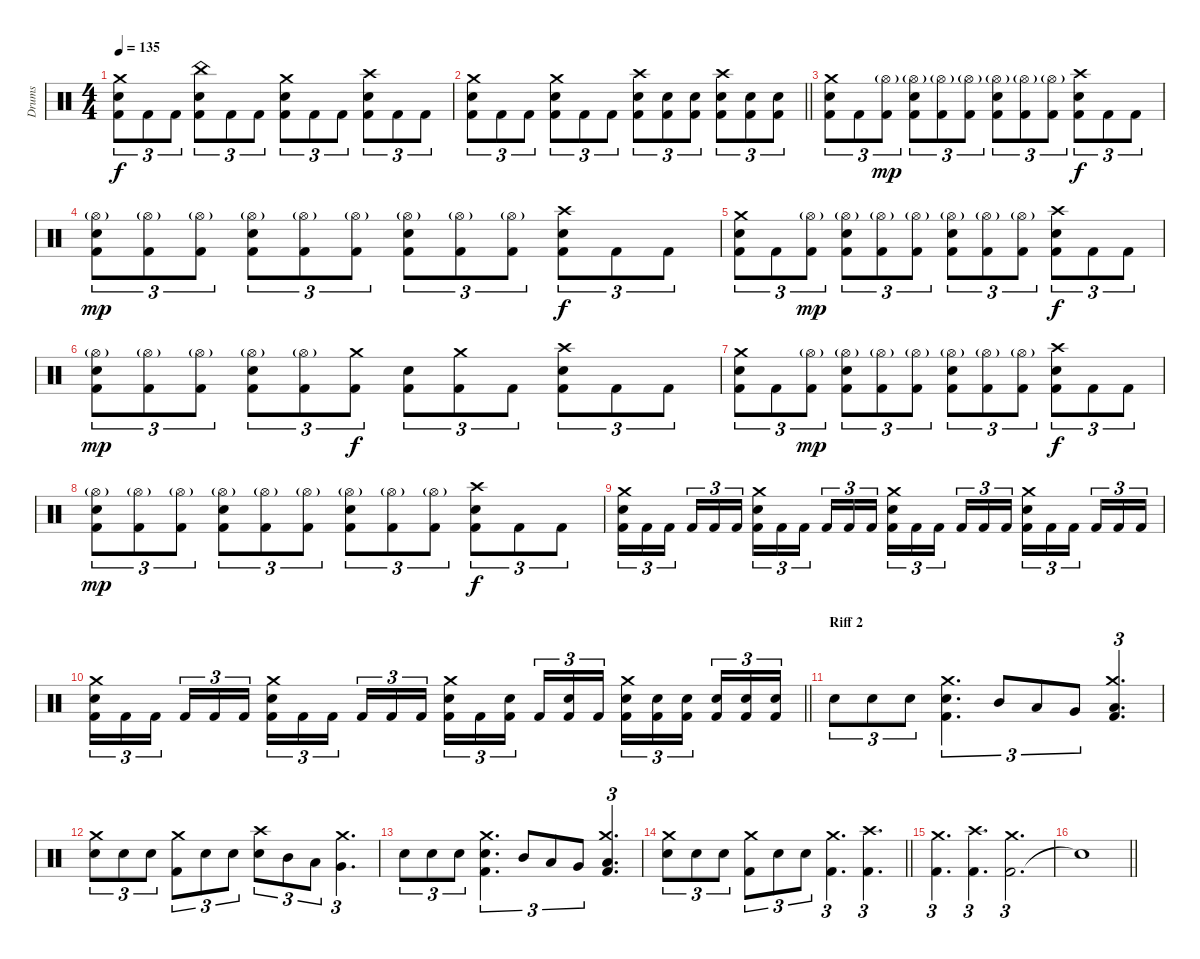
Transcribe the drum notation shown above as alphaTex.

\track ("Drums" "Drums") {instrument percussion}
\staff {score}
\articulation defaults
\ts (4 4)
\tempo 135
\clef neutral
\ks c
("Kick (hit) 2" "Snare (hit) 2" "Crash medium (hit)").8{tu (3 2) dy f} "Kick (hit) 2".8{tu (3 2)} "Kick (hit) 2".8{tu (3 2)} ("Kick (hit) 2" "Snare (hit) 2" "China (hit)").8{tu (3 2)} "Kick (hit) 2".8{tu (3 2)} "Kick (hit) 2".8{tu (3 2)} ("Kick (hit) 2" "Snare (hit) 2" "Crash medium (hit)").8{tu (3 2)} "Kick (hit) 2".8{tu (3 2)} "Kick (hit) 2".8{tu (3 2)} ("Kick (hit) 2" "Snare (hit) 2" "Crash high (hit)").8{tu (3 2)} "Kick (hit) 2".8{tu (3 2)} "Kick (hit) 2".8{tu (3 2)} |
\barLineRight lightlight
("Kick (hit) 2" "Snare (hit) 2" "Crash medium (hit)").8{tu (3 2)} "Kick (hit) 2".8{tu (3 2)} "Kick (hit) 2".8{tu (3 2)} ("Kick (hit) 2" "Snare (hit) 2" "Crash medium (hit)").8{tu (3 2)} "Kick (hit) 2".8{tu (3 2)} "Kick (hit) 2".8{tu (3 2)} ("Kick (hit) 2" "Snare (hit) 2" "Crash high (hit)").8{tu (3 2)} ("Kick (hit) 2" "Snare (hit) 2").8{tu (3 2)} ("Kick (hit) 2" "Snare (hit) 2").8{tu (3 2)} ("Kick (hit) 2" "Snare (hit) 2" "Crash high (hit)").8{tu (3 2)} ("Kick (hit) 2" "Snare (hit) 2").8{tu (3 2)} ("Kick (hit) 2" "Snare (hit) 2").8{tu (3 2)} |
\section ("" "")
("Kick (hit) 2" "Snare (hit) 2" "Crash medium (hit)").8{tu (3 2)} "Kick (hit) 2".8{tu (3 2)} ("Kick (hit) 2" "Hi-Hat (open)"{g}).8{tu (3 2) dy mp} ("Kick (hit) 2" "Snare (hit) 2" "Hi-Hat (open)"{g}).8{tu (3 2)} ("Kick (hit) 2" "Hi-Hat (open)"{g}).8{tu (3 2)} ("Kick (hit) 2" "Hi-Hat (open)"{g}).8{tu (3 2)} ("Kick (hit) 2" "Snare (hit) 2" "Hi-Hat (open)"{g}).8{tu (3 2)} ("Kick (hit) 2" "Hi-Hat (open)"{g}).8{tu (3 2)} ("Kick (hit) 2" "Hi-Hat (open)"{g}).8{tu (3 2)} ("Kick (hit) 2" "Snare (hit) 2" "Crash high (hit)").8{tu (3 2) dy f} "Kick (hit) 2".8{tu (3 2)} "Kick (hit) 2".8{tu (3 2)} |
("Kick (hit) 2" "Snare (hit) 2" "Hi-Hat (open)"{g}).8{tu (3 2) dy mp} ("Kick (hit) 2" "Hi-Hat (open)"{g}).8{tu (3 2)} ("Kick (hit) 2" "Hi-Hat (open)"{g}).8{tu (3 2)} ("Kick (hit) 2" "Snare (hit) 2" "Hi-Hat (open)"{g}).8{tu (3 2)} ("Kick (hit) 2" "Hi-Hat (open)"{g}).8{tu (3 2)} ("Kick (hit) 2" "Hi-Hat (open)"{g}).8{tu (3 2)} ("Kick (hit) 2" "Snare (hit) 2" "Hi-Hat (open)"{g}).8{tu (3 2)} ("Kick (hit) 2" "Hi-Hat (open)"{g}).8{tu (3 2)} ("Kick (hit) 2" "Hi-Hat (open)"{g}).8{tu (3 2)} ("Kick (hit) 2" "Snare (hit) 2" "Crash high (hit)").8{tu (3 2) dy f} "Kick (hit) 2".8{tu (3 2)} "Kick (hit) 2".8{tu (3 2)} |
("Kick (hit) 2" "Snare (hit) 2" "Crash medium (hit)").8{tu (3 2)} "Kick (hit) 2".8{tu (3 2)} ("Kick (hit) 2" "Hi-Hat (open)"{g}).8{tu (3 2) dy mp} ("Kick (hit) 2" "Snare (hit) 2" "Hi-Hat (open)"{g}).8{tu (3 2)} ("Kick (hit) 2" "Hi-Hat (open)"{g}).8{tu (3 2)} ("Kick (hit) 2" "Hi-Hat (open)"{g}).8{tu (3 2)} ("Kick (hit) 2" "Snare (hit) 2" "Hi-Hat (open)"{g}).8{tu (3 2)} ("Kick (hit) 2" "Hi-Hat (open)"{g}).8{tu (3 2)} ("Kick (hit) 2" "Hi-Hat (open)"{g}).8{tu (3 2)} ("Kick (hit) 2" "Snare (hit) 2" "Crash high (hit)").8{tu (3 2) dy f} "Kick (hit) 2".8{tu (3 2)} "Kick (hit) 2".8{tu (3 2)} |
("Kick (hit) 2" "Snare (hit) 2" "Hi-Hat (open)"{g}).8{tu (3 2) dy mp} ("Kick (hit) 2" "Hi-Hat (open)"{g}).8{tu (3 2)} ("Kick (hit) 2" "Hi-Hat (open)"{g}).8{tu (3 2)} ("Kick (hit) 2" "Snare (hit) 2" "Hi-Hat (open)"{g}).8{tu (3 2)} ("Kick (hit) 2" "Hi-Hat (open)"{g}).8{tu (3 2)} ("Kick (hit) 2" "Crash medium (hit)").8{tu (3 2) dy f} ("Kick (hit) 2" "Snare (hit) 2").8{tu (3 2)} ("Kick (hit) 2" "Crash medium (hit)").8{tu (3 2)} "Kick (hit) 2".8{tu (3 2)} ("Kick (hit) 2" "Snare (hit) 2" "Crash high (hit)").8{tu (3 2)} "Kick (hit) 2".8{tu (3 2)} "Kick (hit) 2".8{tu (3 2)} |
("Kick (hit) 2" "Snare (hit) 2" "Crash medium (hit)").8{tu (3 2)} "Kick (hit) 2".8{tu (3 2)} ("Kick (hit) 2" "Hi-Hat (open)"{g}).8{tu (3 2) dy mp} ("Kick (hit) 2" "Snare (hit) 2" "Hi-Hat (open)"{g}).8{tu (3 2)} ("Kick (hit) 2" "Hi-Hat (open)"{g}).8{tu (3 2)} ("Kick (hit) 2" "Hi-Hat (open)"{g}).8{tu (3 2)} ("Kick (hit) 2" "Snare (hit) 2" "Hi-Hat (open)"{g}).8{tu (3 2)} ("Kick (hit) 2" "Hi-Hat (open)"{g}).8{tu (3 2)} ("Kick (hit) 2" "Hi-Hat (open)"{g}).8{tu (3 2)} ("Kick (hit) 2" "Snare (hit) 2" "Crash high (hit)").8{tu (3 2) dy f} "Kick (hit) 2".8{tu (3 2)} "Kick (hit) 2".8{tu (3 2)} |
("Kick (hit) 2" "Snare (hit) 2" "Hi-Hat (open)"{g}).8{tu (3 2) dy mp} ("Kick (hit) 2" "Hi-Hat (open)"{g}).8{tu (3 2)} ("Kick (hit) 2" "Hi-Hat (open)"{g}).8{tu (3 2)} ("Kick (hit) 2" "Snare (hit) 2" "Hi-Hat (open)"{g}).8{tu (3 2)} ("Kick (hit) 2" "Hi-Hat (open)"{g}).8{tu (3 2)} ("Kick (hit) 2" "Hi-Hat (open)"{g}).8{tu (3 2)} ("Kick (hit) 2" "Snare (hit) 2" "Hi-Hat (open)"{g}).8{tu (3 2)} ("Kick (hit) 2" "Hi-Hat (open)"{g}).8{tu (3 2)} ("Kick (hit) 2" "Hi-Hat (open)"{g}).8{tu (3 2)} ("Kick (hit) 2" "Snare (hit) 2" "Crash high (hit)").8{tu (3 2) dy f} "Kick (hit) 2".8{tu (3 2)} "Kick (hit) 2".8{tu (3 2)} |
("Kick (hit) 2" "Snare (hit) 2" "Crash medium (hit)").16{tu (3 2)} "Kick (hit) 2".16{tu (3 2)} "Kick (hit) 2".16{tu (3 2) beam splitsecondary} "Kick (hit) 2".16{tu (3 2)} "Kick (hit) 2".16{tu (3 2)} "Kick (hit) 2".16{tu (3 2)} ("Kick (hit) 2" "Snare (hit) 2" "Crash medium (hit)").16{tu (3 2)} "Kick (hit) 2".16{tu (3 2)} "Kick (hit) 2".16{tu (3 2) beam splitsecondary} "Kick (hit) 2".16{tu (3 2)} "Kick (hit) 2".16{tu (3 2)} "Kick (hit) 2".16{tu (3 2)} ("Kick (hit) 2" "Snare (hit) 2" "Crash medium (hit)").16{tu (3 2)} "Kick (hit) 2".16{tu (3 2)} "Kick (hit) 2".16{tu (3 2) beam splitsecondary} "Kick (hit) 2".16{tu (3 2)} "Kick (hit) 2".16{tu (3 2)} "Kick (hit) 2".16{tu (3 2)} ("Kick (hit) 2" "Snare (hit) 2" "Crash medium (hit)").16{tu (3 2)} "Kick (hit) 2".16{tu (3 2)} "Kick (hit) 2".16{tu (3 2) beam splitsecondary} "Kick (hit) 2".16{tu (3 2)} "Kick (hit) 2".16{tu (3 2)} "Kick (hit) 2".16{tu (3 2)} |
\barLineRight lightlight
("Kick (hit) 2" "Snare (hit) 2" "Crash medium (hit)").16{tu (3 2)} "Kick (hit) 2".16{tu (3 2)} "Kick (hit) 2".16{tu (3 2) beam splitsecondary} "Kick (hit) 2".16{tu (3 2)} "Kick (hit) 2".16{tu (3 2)} "Kick (hit) 2".16{tu (3 2)} ("Kick (hit) 2" "Snare (hit) 2" "Crash medium (hit)").16{tu (3 2)} "Kick (hit) 2".16{tu (3 2)} "Kick (hit) 2".16{tu (3 2) beam splitsecondary} "Kick (hit) 2".16{tu (3 2)} "Kick (hit) 2".16{tu (3 2)} "Kick (hit) 2".16{tu (3 2)} ("Kick (hit) 2" "Snare (hit) 2" "Crash medium (hit)").16{tu (3 2)} "Kick (hit) 2".16{tu (3 2)} ("Kick (hit) 2" "Snare (hit) 2").16{tu (3 2) beam splitsecondary} "Kick (hit) 2".16{tu (3 2)} ("Kick (hit) 2" "Snare (hit) 2").16{tu (3 2)} "Kick (hit) 2".16{tu (3 2)} ("Kick (hit) 2" "Snare (hit) 2" "Crash medium (hit)").16{tu (3 2)} ("Kick (hit) 2" "Snare (hit) 2").16{tu (3 2)} ("Kick (hit) 2" "Snare (hit) 2").16{tu (3 2) beam splitsecondary} ("Kick (hit) 2" "Snare (hit) 2").16{tu (3 2)} ("Kick (hit) 2" "Snare (hit) 2").16{tu (3 2)} ("Kick (hit) 2" "Snare (hit) 2").16{tu (3 2)} |
\section ("" "Riff 2")
"Snare (hit) 2".8{tu (3 2)} "Snare (hit) 2".8{tu (3 2)} "Snare (hit) 2".8{tu (3 2)} ("Kick (hit) 2" "Snare (hit) 2" "Crash medium (hit)").4{d tu (3 2)} "Mid Tom (hit)".8{tu (3 2)} "Low Tom (hit)".8{tu (3 2)} "Very Low Tom (hit)".8{tu (3 2)} ("Kick (hit) 2" "Low Floor Tom (hit)" "Crash medium (hit)").4{d tu (3 2)} |
("Snare (hit) 2" "Crash medium (hit)").8{tu (3 2)} "Snare (hit) 2".8{tu (3 2)} "Snare (hit) 2".8{tu (3 2)} ("Kick (hit) 2" "Crash medium (hit)").8{tu (3 2)} "Snare (hit) 2".8{tu (3 2)} "Snare (hit) 2".8{tu (3 2)} ("Snare (hit) 2" "Crash high (hit)").8{tu (3 2)} "Mid Tom (hit)".8{tu (3 2)} "Low Tom (hit)".8{tu (3 2)} ("Very Low Tom (hit)" "Crash medium (hit)").4{d tu (3 2)} |
"Snare (hit) 2".8{tu (3 2)} "Snare (hit) 2".8{tu (3 2)} "Snare (hit) 2".8{tu (3 2)} ("Kick (hit) 2" "Snare (hit) 2" "Crash medium (hit)").4{d tu (3 2)} "Mid Tom (hit)".8{tu (3 2)} "Low Tom (hit)".8{tu (3 2)} "Very Low Tom (hit)".8{tu (3 2)} ("Kick (hit) 2" "Low Floor Tom (hit)" "Crash medium (hit)").4{d tu (3 2)} |
\barLineRight lightlight
("Snare (hit) 2" "Crash medium (hit)").8{tu (3 2)} "Snare (hit) 2".8{tu (3 2)} "Snare (hit) 2".8{tu (3 2)} ("Kick (hit) 2" "Crash medium (hit)").8{tu (3 2)} "Snare (hit) 2".8{tu (3 2)} "Snare (hit) 2".8{tu (3 2)} ("Kick (hit) 2" "Crash medium (hit)").4{d tu (3 2)} ("Kick (hit) 2" "Crash high (hit)").4{d tu (3 2)} |
\section ("" "")
("Kick (hit) 2" "Crash medium (hit)").4{d tu (3 2)} ("Kick (hit) 2" "Crash high (hit)").4{d tu (3 2)} ("Kick (hit) 2" "Crash medium (hit)").2{d tu (3 2)} |
\barLineRight lightlight "Snare (hit)"{t}.1
